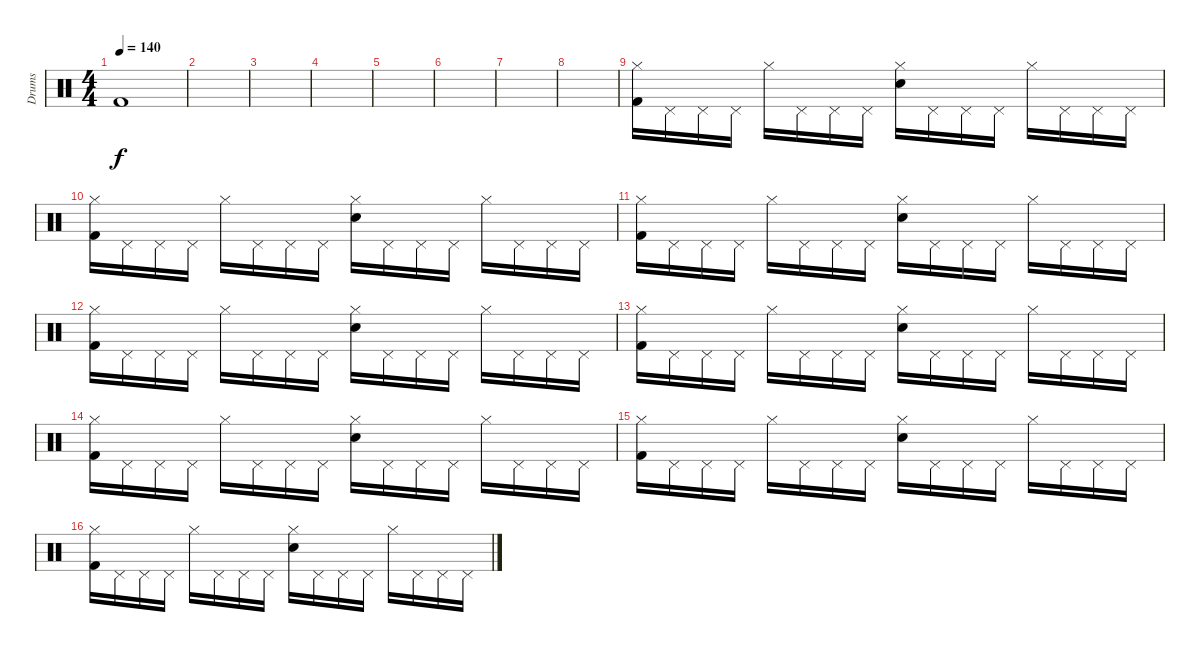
\track ("Drums" "Drums") {instrument percussion}
\staff {score}
\articulation defaults
\ts (4 4)
\tempo 140
\clef neutral
\ks c "Kick (hit) 2".1{dy f}
|
|
|
|
|
|
|
|
("Hi-Hat (closed)" "Kick (hit) 2").16 "Pedal Hi-Hat (hit)".16 "Pedal Hi-Hat (hit)".16 "Pedal Hi-Hat (hit)".16 "Hi-Hat (closed)".16 "Pedal Hi-Hat (hit)".16 "Pedal Hi-Hat (hit)".16 "Pedal Hi-Hat (hit)".16 ("Hi-Hat (closed)" "Snare (hit) 2").16 "Pedal Hi-Hat (hit)".16 "Pedal Hi-Hat (hit)".16 "Pedal Hi-Hat (hit)".16 "Hi-Hat (closed)".16 "Pedal Hi-Hat (hit)".16 "Pedal Hi-Hat (hit)".16 "Pedal Hi-Hat (hit)".16 |
("Hi-Hat (closed)" "Kick (hit) 2").16 "Pedal Hi-Hat (hit)".16 "Pedal Hi-Hat (hit)".16 "Pedal Hi-Hat (hit)".16 "Hi-Hat (closed)".16 "Pedal Hi-Hat (hit)".16 "Pedal Hi-Hat (hit)".16 "Pedal Hi-Hat (hit)".16 ("Hi-Hat (closed)" "Snare (hit) 2").16 "Pedal Hi-Hat (hit)".16 "Pedal Hi-Hat (hit)".16 "Pedal Hi-Hat (hit)".16 "Hi-Hat (closed)".16 "Pedal Hi-Hat (hit)".16 "Pedal Hi-Hat (hit)".16 "Pedal Hi-Hat (hit)".16 |
("Hi-Hat (closed)" "Kick (hit) 2").16 "Pedal Hi-Hat (hit)".16 "Pedal Hi-Hat (hit)".16 "Pedal Hi-Hat (hit)".16 "Hi-Hat (closed)".16 "Pedal Hi-Hat (hit)".16 "Pedal Hi-Hat (hit)".16 "Pedal Hi-Hat (hit)".16 ("Hi-Hat (closed)" "Snare (hit) 2").16 "Pedal Hi-Hat (hit)".16 "Pedal Hi-Hat (hit)".16 "Pedal Hi-Hat (hit)".16 "Hi-Hat (closed)".16 "Pedal Hi-Hat (hit)".16 "Pedal Hi-Hat (hit)".16 "Pedal Hi-Hat (hit)".16 |
("Hi-Hat (closed)" "Kick (hit) 2").16 "Pedal Hi-Hat (hit)".16 "Pedal Hi-Hat (hit)".16 "Pedal Hi-Hat (hit)".16 "Hi-Hat (closed)".16 "Pedal Hi-Hat (hit)".16 "Pedal Hi-Hat (hit)".16 "Pedal Hi-Hat (hit)".16 ("Hi-Hat (closed)" "Snare (hit) 2").16 "Pedal Hi-Hat (hit)".16 "Pedal Hi-Hat (hit)".16 "Pedal Hi-Hat (hit)".16 "Hi-Hat (closed)".16 "Pedal Hi-Hat (hit)".16 "Pedal Hi-Hat (hit)".16 "Pedal Hi-Hat (hit)".16 |
("Hi-Hat (closed)" "Kick (hit) 2").16 "Pedal Hi-Hat (hit)".16 "Pedal Hi-Hat (hit)".16 "Pedal Hi-Hat (hit)".16 "Hi-Hat (closed)".16 "Pedal Hi-Hat (hit)".16 "Pedal Hi-Hat (hit)".16 "Pedal Hi-Hat (hit)".16 ("Hi-Hat (closed)" "Snare (hit) 2").16 "Pedal Hi-Hat (hit)".16 "Pedal Hi-Hat (hit)".16 "Pedal Hi-Hat (hit)".16 "Hi-Hat (closed)".16 "Pedal Hi-Hat (hit)".16 "Pedal Hi-Hat (hit)".16 "Pedal Hi-Hat (hit)".16 |
("Hi-Hat (closed)" "Kick (hit) 2").16 "Pedal Hi-Hat (hit)".16 "Pedal Hi-Hat (hit)".16 "Pedal Hi-Hat (hit)".16 "Hi-Hat (closed)".16 "Pedal Hi-Hat (hit)".16 "Pedal Hi-Hat (hit)".16 "Pedal Hi-Hat (hit)".16 ("Hi-Hat (closed)" "Snare (hit) 2").16 "Pedal Hi-Hat (hit)".16 "Pedal Hi-Hat (hit)".16 "Pedal Hi-Hat (hit)".16 "Hi-Hat (closed)".16 "Pedal Hi-Hat (hit)".16 "Pedal Hi-Hat (hit)".16 "Pedal Hi-Hat (hit)".16 |
("Hi-Hat (closed)" "Kick (hit) 2").16 "Pedal Hi-Hat (hit)".16 "Pedal Hi-Hat (hit)".16 "Pedal Hi-Hat (hit)".16 "Hi-Hat (closed)".16 "Pedal Hi-Hat (hit)".16 "Pedal Hi-Hat (hit)".16 "Pedal Hi-Hat (hit)".16 ("Hi-Hat (closed)" "Snare (hit) 2").16 "Pedal Hi-Hat (hit)".16 "Pedal Hi-Hat (hit)".16 "Pedal Hi-Hat (hit)".16 "Hi-Hat (closed)".16 "Pedal Hi-Hat (hit)".16 "Pedal Hi-Hat (hit)".16 "Pedal Hi-Hat (hit)".16 |
("Hi-Hat (closed)" "Kick (hit) 2").16 "Pedal Hi-Hat (hit)".16 "Pedal Hi-Hat (hit)".16 "Pedal Hi-Hat (hit)".16 "Hi-Hat (closed)".16 "Pedal Hi-Hat (hit)".16 "Pedal Hi-Hat (hit)".16 "Pedal Hi-Hat (hit)".16 ("Hi-Hat (closed)" "Snare (hit) 2").16 "Pedal Hi-Hat (hit)".16 "Pedal Hi-Hat (hit)".16 "Pedal Hi-Hat (hit)".16 "Hi-Hat (closed)".16 "Pedal Hi-Hat (hit)".16 "Pedal Hi-Hat (hit)".16 "Pedal Hi-Hat (hit)".16
